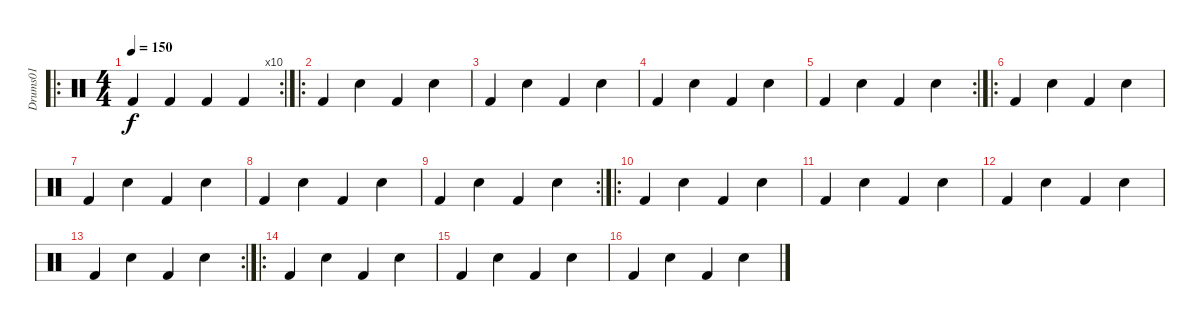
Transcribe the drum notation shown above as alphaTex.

\track ("Drums01" "Drums01") {instrument percussion}
\staff {score}
\articulation defaults
\ro
\rc 10
\ts (4 4)
\tempo 150
\clef neutral
\ks c "Kick (hit) 2".4{dy f} "Kick (hit) 2".4 "Kick (hit) 2".4 "Kick (hit) 2".4
|
\ro "Kick (hit) 2".4 "Snare (hit) 2".4 "Kick (hit) 2".4 "Snare (hit) 2".4
|
"Kick (hit) 2".4 "Snare (hit) 2".4 "Kick (hit) 2".4 "Snare (hit) 2".4 |
"Kick (hit) 2".4 "Snare (hit) 2".4 "Kick (hit) 2".4 "Snare (hit) 2".4 |
\rc 2 "Kick (hit) 2".4 "Snare (hit) 2".4 "Kick (hit) 2".4 "Snare (hit) 2".4
|
\ro "Kick (hit) 2".4 "Snare (hit) 2".4 "Kick (hit) 2".4 "Snare (hit) 2".4
|
"Kick (hit) 2".4 "Snare (hit) 2".4 "Kick (hit) 2".4 "Snare (hit) 2".4 |
"Kick (hit) 2".4 "Snare (hit) 2".4 "Kick (hit) 2".4 "Snare (hit) 2".4 |
\rc 2 "Kick (hit) 2".4 "Snare (hit) 2".4 "Kick (hit) 2".4 "Snare (hit) 2".4
|
\ro "Kick (hit) 2".4 "Snare (hit) 2".4 "Kick (hit) 2".4 "Snare (hit) 2".4
|
"Kick (hit) 2".4 "Snare (hit) 2".4 "Kick (hit) 2".4 "Snare (hit) 2".4 |
"Kick (hit) 2".4 "Snare (hit) 2".4 "Kick (hit) 2".4 "Snare (hit) 2".4 |
\rc 2 "Kick (hit) 2".4 "Snare (hit) 2".4 "Kick (hit) 2".4 "Snare (hit) 2".4
|
\ro "Kick (hit) 2".4 "Snare (hit) 2".4 "Kick (hit) 2".4 "Snare (hit) 2".4
|
"Kick (hit) 2".4 "Snare (hit) 2".4 "Kick (hit) 2".4 "Snare (hit) 2".4 |
"Kick (hit) 2".4 "Snare (hit) 2".4 "Kick (hit) 2".4 "Snare (hit) 2".4
